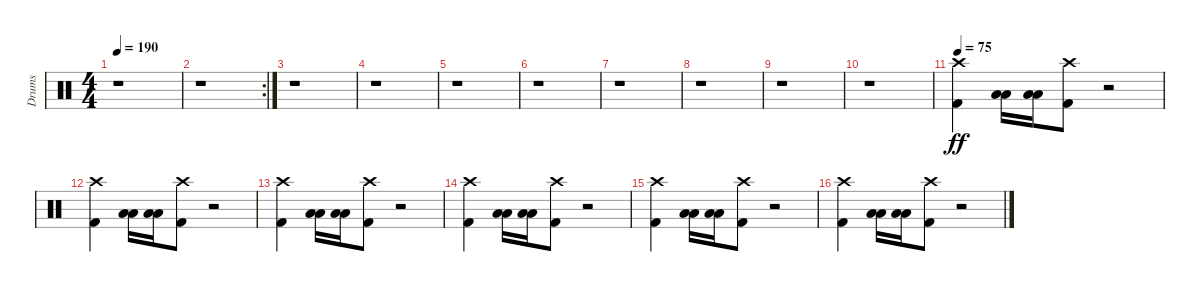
\track ("Drums" "Drums") {instrument percussion}
\staff {score}
\articulation defaults
\ts (4 4)
\tempo 190
\tempo 75
\tempo 190
\clef neutral
\ks c
r.1{dy ff} |
\rc 2
r.1 |
r.1 |
r.1 |
r.1 |
r.1 |
r.1 |
r.1 |
r.1 |
r.1 |
\tempo 75
("Crash high (hit)" "Kick (hit) 2").4 ("Low Tom (hit)" "Low Floor Tom (hit)").16 ("Low Tom (hit)" "Low Floor Tom (hit)").16 ("Crash high (hit)" "Kick (hit) 2").8 r.2 |
("Crash high (hit)" "Kick (hit) 2").4 ("Low Tom (hit)" "Low Floor Tom (hit)").16 ("Low Tom (hit)" "Low Floor Tom (hit)").16 ("Crash high (hit)" "Kick (hit) 2").8 r.2 |
("Crash high (hit)" "Kick (hit) 2").4 ("Low Tom (hit)" "Low Floor Tom (hit)").16 ("Low Tom (hit)" "Low Floor Tom (hit)").16 ("Crash high (hit)" "Kick (hit) 2").8 r.2 |
("Crash high (hit)" "Kick (hit) 2").4 ("Low Tom (hit)" "Low Floor Tom (hit)").16 ("Low Tom (hit)" "Low Floor Tom (hit)").16 ("Crash high (hit)" "Kick (hit) 2").8 r.2 |
("Crash high (hit)" "Kick (hit) 2").4 ("Low Tom (hit)" "Low Floor Tom (hit)").16 ("Low Tom (hit)" "Low Floor Tom (hit)").16 ("Crash high (hit)" "Kick (hit) 2").8 r.2 |
("Crash high (hit)" "Kick (hit) 2").4 ("Low Tom (hit)" "Low Floor Tom (hit)").16 ("Low Tom (hit)" "Low Floor Tom (hit)").16 ("Crash high (hit)" "Kick (hit) 2").8 r.2
